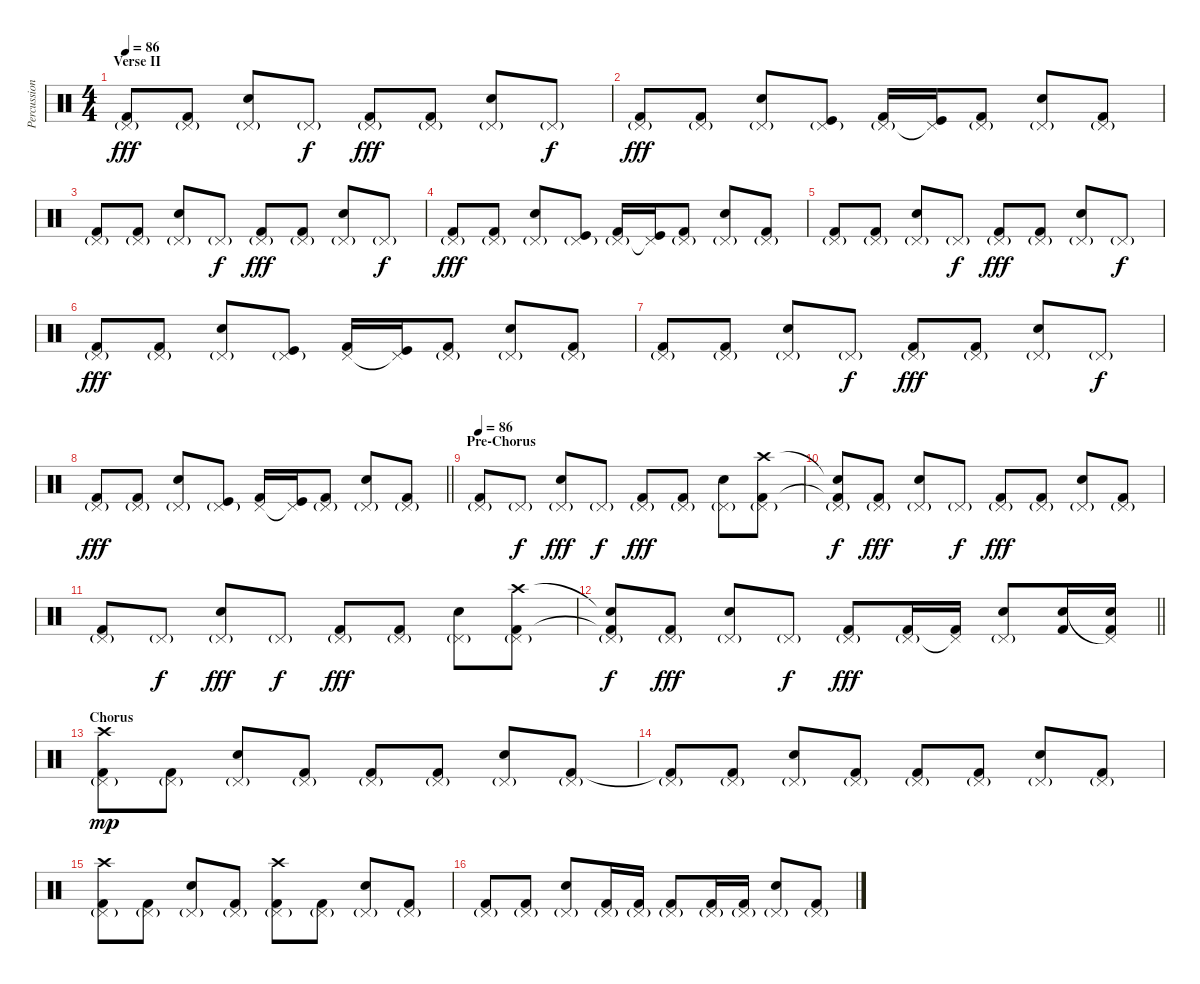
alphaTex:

\track ("Percussion" "Percussion") {instrument percussion}
\staff {score}
\articulation defaults
\ts (4 4)
\section ("" "Verse II")
\tempo 86
\clef neutral
\ks c
("Pedal Hi-Hat (hit)"{g} "Kick (hit) 2").8{dy fff} ("Pedal Hi-Hat (hit)"{g} "Kick (hit) 2").8 ("Pedal Hi-Hat (hit)"{g} "Snare (hit) 2").8 "Pedal Hi-Hat (hit)"{g}.8{dy f} ("Pedal Hi-Hat (hit)"{g} "Kick (hit) 2").8{dy fff} ("Pedal Hi-Hat (hit)"{g} "Kick (hit) 2").8 ("Pedal Hi-Hat (hit)"{g} "Snare (hit) 2").8 "Pedal Hi-Hat (hit)"{g}.8{dy f} |
("Pedal Hi-Hat (hit)"{g} "Kick (hit) 2").8{dy fff} ("Pedal Hi-Hat (hit)"{g} "Kick (hit) 2").8 ("Pedal Hi-Hat (hit)"{g} "Snare (hit) 2").8 ("Pedal Hi-Hat (hit)"{g} "Kick (hit)").8 ("Pedal Hi-Hat (hit)"{g} "Kick (hit) 2").16 ("Pedal Hi-Hat (hit)"{t} "Kick (hit)").16 ("Pedal Hi-Hat (hit)"{g} "Kick (hit) 2").8 ("Pedal Hi-Hat (hit)"{g} "Snare (hit) 2").8 ("Pedal Hi-Hat (hit)"{g} "Kick (hit) 2").8 |
("Pedal Hi-Hat (hit)"{g} "Kick (hit) 2").8 ("Pedal Hi-Hat (hit)"{g} "Kick (hit) 2").8 ("Pedal Hi-Hat (hit)"{g} "Snare (hit) 2").8 "Pedal Hi-Hat (hit)"{g}.8{dy f} ("Pedal Hi-Hat (hit)"{g} "Kick (hit) 2").8{dy fff} ("Pedal Hi-Hat (hit)"{g} "Kick (hit) 2").8 ("Pedal Hi-Hat (hit)"{g} "Snare (hit) 2").8 "Pedal Hi-Hat (hit)"{g}.8{dy f} |
("Pedal Hi-Hat (hit)"{g} "Kick (hit) 2").8{dy fff} ("Pedal Hi-Hat (hit)"{g} "Kick (hit) 2").8 ("Pedal Hi-Hat (hit)"{g} "Snare (hit) 2").8 ("Pedal Hi-Hat (hit)"{g} "Kick (hit)").8 ("Pedal Hi-Hat (hit)"{g} "Kick (hit) 2").16 ("Pedal Hi-Hat (hit)"{t} "Kick (hit)").16 ("Pedal Hi-Hat (hit)"{g} "Kick (hit) 2").8 ("Pedal Hi-Hat (hit)"{g} "Snare (hit) 2").8 ("Pedal Hi-Hat (hit)"{g} "Kick (hit) 2").8 |
("Pedal Hi-Hat (hit)"{g} "Kick (hit) 2").8 ("Pedal Hi-Hat (hit)"{g} "Kick (hit) 2").8 ("Pedal Hi-Hat (hit)"{g} "Snare (hit) 2").8 "Pedal Hi-Hat (hit)"{g}.8{dy f} ("Pedal Hi-Hat (hit)"{g} "Kick (hit) 2").8{dy fff} ("Pedal Hi-Hat (hit)"{g} "Kick (hit) 2").8 ("Pedal Hi-Hat (hit)"{g} "Snare (hit) 2").8 "Pedal Hi-Hat (hit)"{g}.8{dy f} |
("Pedal Hi-Hat (hit)"{g} "Kick (hit) 2").8{dy fff} ("Pedal Hi-Hat (hit)"{g} "Kick (hit) 2").8 ("Pedal Hi-Hat (hit)"{g} "Snare (hit) 2").8 ("Pedal Hi-Hat (hit)"{g} "Kick (hit)").8 ("Pedal Hi-Hat (hit)" "Kick (hit) 2").16 ("Pedal Hi-Hat (hit)"{t} "Kick (hit)").16 ("Pedal Hi-Hat (hit)"{g} "Kick (hit) 2").8 ("Pedal Hi-Hat (hit)"{g} "Snare (hit) 2").8 ("Pedal Hi-Hat (hit)"{g} "Kick (hit) 2").8 |
("Pedal Hi-Hat (hit)"{g} "Kick (hit) 2").8 ("Pedal Hi-Hat (hit)"{g} "Kick (hit) 2").8 ("Pedal Hi-Hat (hit)"{g} "Snare (hit) 2").8 "Pedal Hi-Hat (hit)"{g}.8{dy f} ("Pedal Hi-Hat (hit)"{g} "Kick (hit) 2").8{dy fff} ("Pedal Hi-Hat (hit)"{g} "Kick (hit) 2").8 ("Pedal Hi-Hat (hit)"{g} "Snare (hit) 2").8 "Pedal Hi-Hat (hit)"{g}.8{dy f} |
\barLineRight lightlight
("Pedal Hi-Hat (hit)"{g} "Kick (hit) 2").8{dy fff} ("Pedal Hi-Hat (hit)"{g} "Kick (hit) 2").8 ("Pedal Hi-Hat (hit)"{g} "Snare (hit) 2").8 ("Pedal Hi-Hat (hit)"{g} "Kick (hit)").8 ("Pedal Hi-Hat (hit)" "Kick (hit) 2").16 ("Pedal Hi-Hat (hit)"{t} "Kick (hit)").16 ("Pedal Hi-Hat (hit)"{g} "Kick (hit) 2").8 ("Pedal Hi-Hat (hit)"{g} "Snare (hit) 2").8 ("Pedal Hi-Hat (hit)"{g} "Kick (hit) 2").8 |
\section ("" "Pre-Chorus")
\tempo 86
("Pedal Hi-Hat (hit)"{g} "Kick (hit) 2").8 "Pedal Hi-Hat (hit)"{g}.8{dy f} ("Pedal Hi-Hat (hit)"{g} "Snare (hit) 2").8{dy fff} "Pedal Hi-Hat (hit)"{g}.8{dy f} ("Pedal Hi-Hat (hit)"{g} "Kick (hit) 2").8{dy fff} ("Pedal Hi-Hat (hit)"{g} "Kick (hit) 2").8 ("Pedal Hi-Hat (hit)"{g} "Snare (hit) 2").8 ("Pedal Hi-Hat (hit)"{g} "Kick (hit) 2" "Crash high (hit)").8 |
("Pedal Hi-Hat (hit)"{g} "Kick (hit) 2"{t} "Snare (hit)"{t}).8{dy f} ("Pedal Hi-Hat (hit)"{g} "Kick (hit) 2").8{dy fff} ("Pedal Hi-Hat (hit)"{g} "Snare (hit) 2").8 "Pedal Hi-Hat (hit)"{g}.8{dy f} ("Pedal Hi-Hat (hit)"{g} "Kick (hit) 2").8{dy fff} ("Pedal Hi-Hat (hit)"{g} "Kick (hit) 2").8 ("Pedal Hi-Hat (hit)"{g} "Snare (hit) 2").8 ("Pedal Hi-Hat (hit)"{g} "Kick (hit) 2").8 |
("Pedal Hi-Hat (hit)"{g} "Kick (hit) 2").8 "Pedal Hi-Hat (hit)"{g}.8{dy f} ("Pedal Hi-Hat (hit)"{g} "Snare (hit) 2").8{dy fff} "Pedal Hi-Hat (hit)"{g}.8{dy f} ("Pedal Hi-Hat (hit)"{g} "Kick (hit) 2").8{dy fff} ("Pedal Hi-Hat (hit)"{g} "Kick (hit) 2").8 ("Pedal Hi-Hat (hit)"{g} "Snare (hit) 2").8 ("Pedal Hi-Hat (hit)"{g} "Kick (hit) 2" "Crash high (hit)").8 |
\barLineRight lightlight
("Pedal Hi-Hat (hit)"{g} "Kick (hit) 2"{t} "Snare (hit)"{t}).8{dy f} ("Pedal Hi-Hat (hit)"{g} "Kick (hit) 2").8{dy fff} ("Pedal Hi-Hat (hit)"{g} "Snare (hit) 2").8 "Pedal Hi-Hat (hit)"{g}.8{dy f} ("Pedal Hi-Hat (hit)"{g} "Kick (hit) 2").8{dy fff} ("Pedal Hi-Hat (hit)"{g} "Kick (hit) 2").16 ("Pedal Hi-Hat (hit)"{t} "Kick (hit) 2").16 ("Pedal Hi-Hat (hit)"{g} "Snare (hit) 2").8 ("Snare (hit) 2" "Kick (hit) 2").16 ("Pedal Hi-Hat (hit)"{t} "Snare (hit) 2" "Kick (hit) 2").16 |
\section ("" "Chorus")
("Pedal Hi-Hat (hit)"{g} "Kick (hit) 2" "Crash high (hit)").8{dy mp} ("Pedal Hi-Hat (hit)"{g} "Kick (hit) 2").8 ("Pedal Hi-Hat (hit)"{g} "Snare (hit) 2").8 ("Pedal Hi-Hat (hit)"{g} "Kick (hit) 2").8 ("Pedal Hi-Hat (hit)"{g} "Kick (hit) 2").8 ("Pedal Hi-Hat (hit)"{g} "Kick (hit) 2").8 ("Pedal Hi-Hat (hit)"{g} "Snare (hit) 2").8 ("Pedal Hi-Hat (hit)"{g} "Kick (hit) 2").8 |
("Pedal Hi-Hat (hit)"{g} "Kick (hit) 2"{t}).8 ("Pedal Hi-Hat (hit)"{g} "Kick (hit) 2").8 ("Pedal Hi-Hat (hit)"{g} "Snare (hit) 2").8 ("Pedal Hi-Hat (hit)"{g} "Kick (hit) 2").8 ("Pedal Hi-Hat (hit)"{g} "Kick (hit) 2").8 ("Pedal Hi-Hat (hit)"{g} "Kick (hit) 2").8 ("Pedal Hi-Hat (hit)"{g} "Snare (hit) 2").8 ("Pedal Hi-Hat (hit)"{g} "Kick (hit) 2").8 |
("Pedal Hi-Hat (hit)"{g} "Kick (hit) 2" "Crash high (hit)").8 ("Pedal Hi-Hat (hit)"{g} "Kick (hit) 2").8 ("Pedal Hi-Hat (hit)"{g} "Snare (hit) 2").8 ("Pedal Hi-Hat (hit)"{g} "Kick (hit) 2").8 ("Pedal Hi-Hat (hit)"{g} "Kick (hit) 2" "Crash high (hit)").8 ("Pedal Hi-Hat (hit)"{g} "Kick (hit) 2").8 ("Pedal Hi-Hat (hit)"{g} "Snare (hit) 2").8 ("Pedal Hi-Hat (hit)"{g} "Kick (hit) 2").8 |
("Pedal Hi-Hat (hit)"{g} "Kick (hit) 2").8 ("Pedal Hi-Hat (hit)"{g} "Kick (hit) 2").8 ("Pedal Hi-Hat (hit)"{g} "Snare (hit) 2").8 ("Pedal Hi-Hat (hit)"{g} "Kick (hit) 2").16 ("Pedal Hi-Hat (hit)"{g} "Kick (hit) 2").16 ("Pedal Hi-Hat (hit)"{g} "Kick (hit) 2").8 ("Pedal Hi-Hat (hit)"{g} "Kick (hit) 2").16 ("Pedal Hi-Hat (hit)"{g} "Kick (hit) 2").16 ("Pedal Hi-Hat (hit)"{g} "Snare (hit) 2").8 ("Pedal Hi-Hat (hit)"{g} "Kick (hit) 2").8
